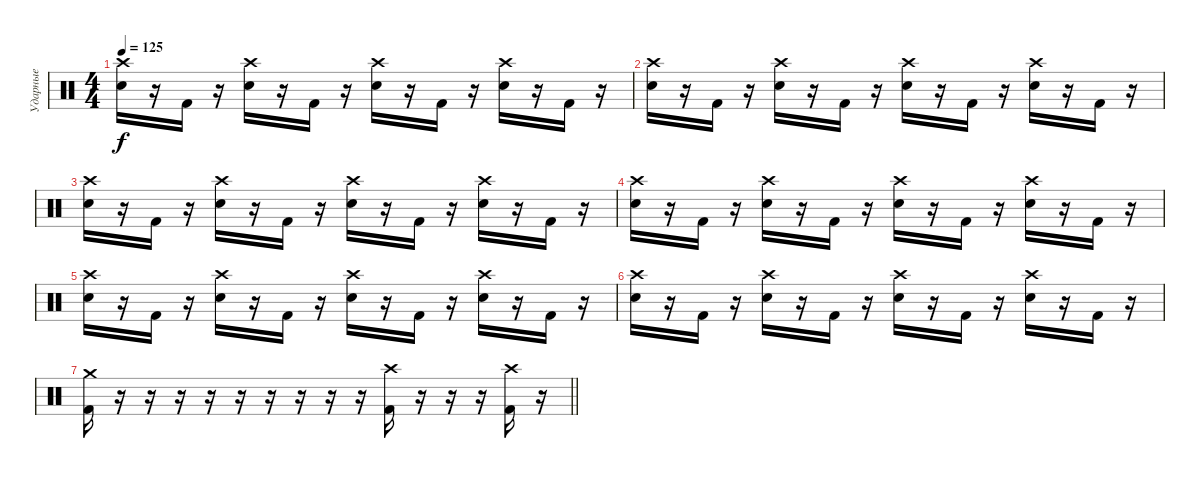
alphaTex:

\track ("Ударные" "Ударные") {instrument percussion}
\staff {score}
\articulation defaults
\ts (4 4)
\tempo 125
\clef neutral
\ks c
("Crash high (hit)" "Electric Snare (hit)").16{dy f} r.16 "Kick (hit) 2".16 r.16 ("Crash high (hit)" "Electric Snare (hit)").16 r.16 "Kick (hit) 2".16 r.16 ("Crash high (hit)" "Electric Snare (hit)").16 r.16 "Kick (hit) 2".16 r.16 ("Crash high (hit)" "Electric Snare (hit)").16 r.16 "Kick (hit) 2".16 r.16 |
("Crash high (hit)" "Electric Snare (hit)").16 r.16 "Kick (hit) 2".16 r.16 ("Crash high (hit)" "Electric Snare (hit)").16 r.16 "Kick (hit) 2".16 r.16 ("Crash high (hit)" "Electric Snare (hit)").16 r.16 "Kick (hit) 2".16 r.16 ("Crash high (hit)" "Electric Snare (hit)").16 r.16 "Kick (hit) 2".16 r.16 |
("Crash high (hit)" "Electric Snare (hit)").16 r.16 "Kick (hit) 2".16 r.16 ("Crash high (hit)" "Electric Snare (hit)").16 r.16 "Kick (hit) 2".16 r.16 ("Crash high (hit)" "Electric Snare (hit)").16 r.16 "Kick (hit) 2".16 r.16 ("Crash high (hit)" "Electric Snare (hit)").16 r.16 "Kick (hit) 2".16 r.16 |
("Crash high (hit)" "Electric Snare (hit)").16 r.16 "Kick (hit) 2".16 r.16 ("Crash high (hit)" "Electric Snare (hit)").16 r.16 "Kick (hit) 2".16 r.16 ("Crash high (hit)" "Electric Snare (hit)").16 r.16 "Kick (hit) 2".16 r.16 ("Crash high (hit)" "Electric Snare (hit)").16 r.16 "Kick (hit) 2".16 r.16 |
("Crash high (hit)" "Electric Snare (hit)").16 r.16 "Kick (hit) 2".16 r.16 ("Crash high (hit)" "Electric Snare (hit)").16 r.16 "Kick (hit) 2".16 r.16 ("Crash high (hit)" "Electric Snare (hit)").16 r.16 "Kick (hit) 2".16 r.16 ("Crash high (hit)" "Electric Snare (hit)").16 r.16 "Kick (hit) 2".16 r.16 |
("Crash high (hit)" "Electric Snare (hit)").16 r.16 "Kick (hit) 2".16 r.16 ("Crash high (hit)" "Electric Snare (hit)").16 r.16 "Kick (hit) 2".16 r.16 ("Crash high (hit)" "Electric Snare (hit)").16 r.16 "Kick (hit) 2".16 r.16 ("Crash high (hit)" "Electric Snare (hit)").16 r.16 "Kick (hit) 2".16 r.16 |
\barLineRight lightlight
("Crash medium (hit)" "Kick (hit) 2").16 r.16 r.16 r.16 r.16 r.16 r.16 r.16 r.16 r.16 ("Crash high (hit)" "Kick (hit) 2").16 r.16 r.16 r.16 ("Crash high (hit)" "Kick (hit) 2").16 r.16
